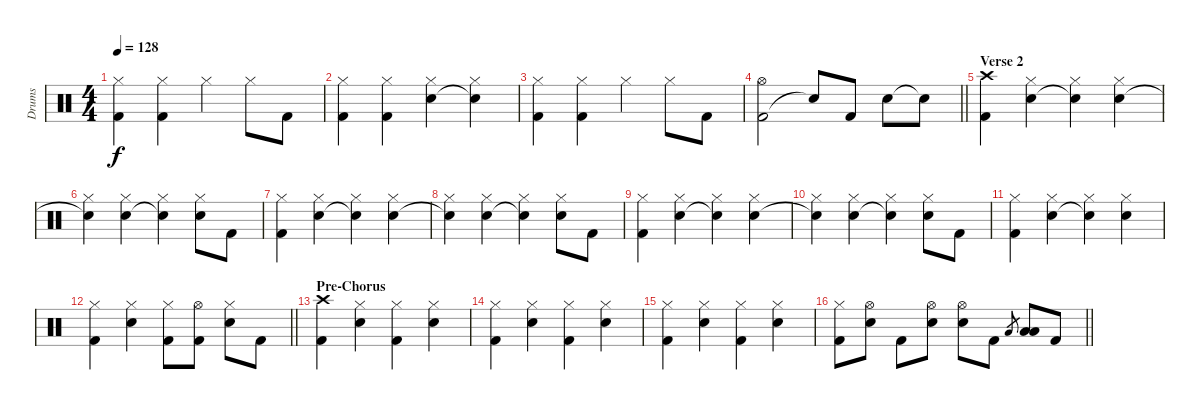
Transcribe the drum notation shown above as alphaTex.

\track ("Drums" "Drums") {instrument percussion}
\staff {score}
\articulation defaults
\ts (4 4)
\tempo 128
\clef neutral
\ks c
("Kick (hit) 2" "Hi-Hat (closed)").4{dy f} ("Kick (hit) 2" "Hi-Hat (closed)").4 "Hi-Hat (closed)".4 "Hi-Hat (closed)".8 "Kick (hit) 2".8 |
("Kick (hit) 2" "Hi-Hat (closed)").4 ("Kick (hit) 2" "Hi-Hat (closed)").4 ("Electric Snare (hit)" "Hi-Hat (closed)").4 ("Snare (hit)"{t} "Hi-Hat (closed)").4 |
("Kick (hit) 2" "Hi-Hat (closed)").4 ("Kick (hit) 2" "Hi-Hat (closed)").4 "Hi-Hat (closed)".4 "Hi-Hat (closed)".8 "Kick (hit) 2".8 |
\barLineRight lightlight
("Kick (hit) 2" "Hi-Hat (open)").2 "Snare (hit)"{t}.8 "Kick (hit) 2".8 "Electric Snare (hit)".8 "Electric Snare (hit)"{t}.8 |
\section ("" "Verse 2")
("Kick (hit) 2" "Crash high (hit)").4 ("Electric Snare (hit)" "Hi-Hat (closed)").4 ("Snare (hit)"{t} "Hi-Hat (closed)").4 ("Electric Snare (hit)" "Hi-Hat (closed)").4 |
("Snare (hit)"{t} "Hi-Hat (closed)").4 ("Electric Snare (hit)" "Hi-Hat (closed)").4 ("Snare (hit)"{t} "Hi-Hat (closed)").4 ("Electric Snare (hit)" "Hi-Hat (closed)").8 "Kick (hit) 2".8 |
("Kick (hit) 2" "Hi-Hat (closed)").4 ("Electric Snare (hit)" "Hi-Hat (closed)").4 ("Snare (hit)"{t} "Hi-Hat (closed)").4 ("Electric Snare (hit)" "Hi-Hat (closed)").4 |
("Snare (hit)"{t} "Hi-Hat (closed)").4 ("Electric Snare (hit)" "Hi-Hat (closed)").4 ("Snare (hit)"{t} "Hi-Hat (closed)").4 ("Electric Snare (hit)" "Hi-Hat (closed)").8 "Kick (hit) 2".8 |
("Kick (hit) 2" "Hi-Hat (closed)").4 ("Electric Snare (hit)" "Hi-Hat (closed)").4 ("Snare (hit)"{t} "Hi-Hat (closed)").4 ("Electric Snare (hit)" "Hi-Hat (closed)").4 |
("Snare (hit)"{t} "Hi-Hat (closed)").4 ("Electric Snare (hit)" "Hi-Hat (closed)").4 ("Snare (hit)"{t} "Hi-Hat (closed)").4 ("Electric Snare (hit)" "Hi-Hat (closed)").8 "Kick (hit) 2".8 |
("Kick (hit) 2" "Hi-Hat (closed)").4 ("Electric Snare (hit)" "Hi-Hat (closed)").4 ("Snare (hit)"{t} "Hi-Hat (closed)").4 ("Electric Snare (hit)" "Hi-Hat (closed)").4 |
\barLineRight lightlight
("Kick (hit) 2" "Hi-Hat (closed)").4 ("Electric Snare (hit)" "Hi-Hat (closed)").4 ("Kick (hit) 2" "Hi-Hat (closed)").8 ("Kick (hit) 2" "Hi-Hat (open)").8 ("Electric Snare (hit)" "Hi-Hat (closed)").8 "Kick (hit) 2".8 |
\section ("" "Pre-Chorus")
("Kick (hit) 2" "Crash high (hit)").4 ("Electric Snare (hit)" "Hi-Hat (closed)").4 ("Kick (hit) 2" "Hi-Hat (closed)").4 ("Electric Snare (hit)" "Hi-Hat (closed)").4 |
("Kick (hit) 2" "Hi-Hat (closed)").4 ("Electric Snare (hit)" "Hi-Hat (closed)").4 ("Kick (hit) 2" "Hi-Hat (closed)").4 ("Electric Snare (hit)" "Hi-Hat (closed)").4 |
("Kick (hit) 2" "Hi-Hat (closed)").4 ("Electric Snare (hit)" "Hi-Hat (closed)").4 ("Kick (hit) 2" "Hi-Hat (closed)").4 ("Electric Snare (hit)" "Hi-Hat (closed)").4 |
\barLineRight lightlight
("Kick (hit) 2" "Hi-Hat (closed)").8 ("Electric Snare (hit)" "Hi-Hat (open)").8 "Kick (hit) 2".8 ("Electric Snare (hit)" "Hi-Hat (open)").8 ("Electric Snare (hit)" "Hi-Hat (open)").8 "Kick (hit) 2".8 "Low Tom (hit)".8{gr} ("Low Tom (hit)" "Low Floor Tom (hit)").8 "Kick (hit) 2".8
